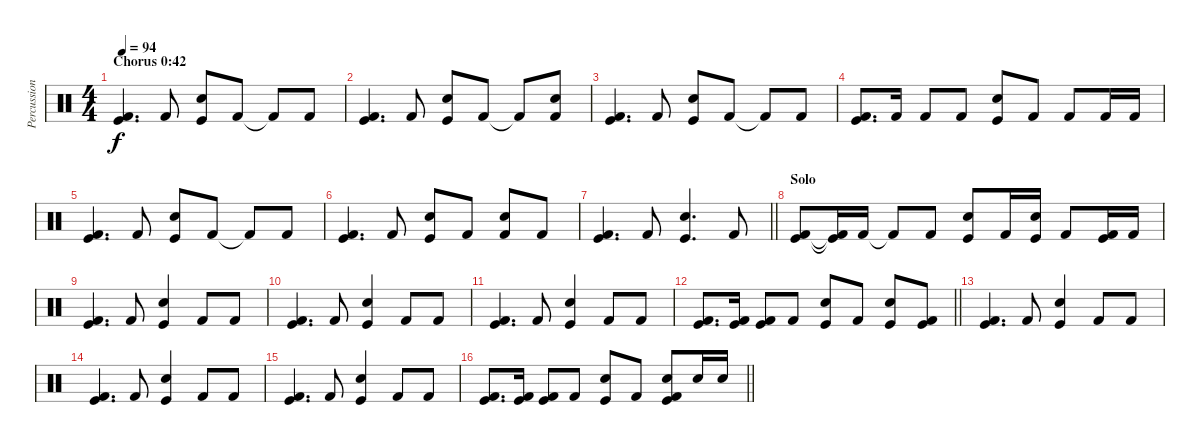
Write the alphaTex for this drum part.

\track ("Percussion" "Percussion") {instrument percussion}
\staff {score}
\articulation defaults
\ts (4 4)
\section ("" "Chorus 0:42")
\tempo 94
\clef neutral
\ks c
("Kick (hit)" "Kick (hit) 2").4{d dy f} "Kick (hit) 2".8 ("Electric Snare (hit)" "Kick (hit)").8 "Kick (hit) 2".8 "Kick (hit) 2"{t}.8 "Kick (hit) 2".8 |
("Kick (hit)" "Kick (hit) 2").4{d} "Kick (hit) 2".8 ("Electric Snare (hit)" "Kick (hit)").8 "Kick (hit) 2".8 "Kick (hit) 2"{t}.8 ("Electric Snare (hit)" "Kick (hit) 2").8 |
("Kick (hit)" "Kick (hit) 2").4{d} "Kick (hit) 2".8 ("Electric Snare (hit)" "Kick (hit)").8 "Kick (hit) 2".8 "Kick (hit) 2"{t}.8 "Kick (hit) 2".8 |
("Kick (hit)" "Kick (hit) 2").8{d} "Kick (hit) 2".16 "Kick (hit) 2".8 "Kick (hit) 2".8 ("Electric Snare (hit)" "Kick (hit)").8 "Kick (hit) 2".8 "Kick (hit) 2".8 "Kick (hit) 2".16 "Kick (hit) 2".16 |
("Kick (hit)" "Kick (hit) 2").4{d} "Kick (hit) 2".8 ("Electric Snare (hit)" "Kick (hit)").8 "Kick (hit) 2".8 "Kick (hit) 2"{t}.8 "Kick (hit) 2".8 |
("Kick (hit)" "Kick (hit) 2").4{d} "Kick (hit) 2".8 ("Electric Snare (hit)" "Kick (hit)").8 "Kick (hit) 2".8 ("Electric Snare (hit)" "Kick (hit) 2").8 "Kick (hit) 2".8 |
\barLineRight lightlight
("Kick (hit)" "Kick (hit) 2").4{d} "Kick (hit) 2".8 ("Electric Snare (hit)" "Kick (hit)").4{d} "Kick (hit) 2".8 |
\section ("" "Solo")
("Kick (hit)" "Kick (hit) 2").8 ("Kick (hit)"{t} "Kick (hit) 2"{t}).16 "Kick (hit) 2".16 "Kick (hit) 2"{t}.8 "Kick (hit) 2".8 ("Electric Snare (hit)" "Kick (hit)").8 "Kick (hit) 2".16 ("Electric Snare (hit)" "Kick (hit)").16 "Kick (hit) 2".8 ("Kick (hit)" "Kick (hit) 2").16 "Kick (hit) 2".16 |
("Kick (hit)" "Kick (hit) 2").4{d} "Kick (hit) 2".8 ("Electric Snare (hit)" "Kick (hit)").4 "Kick (hit) 2".8 "Kick (hit) 2".8 |
("Kick (hit)" "Kick (hit) 2").4{d} "Kick (hit) 2".8 ("Electric Snare (hit)" "Kick (hit)").4 "Kick (hit) 2".8 "Kick (hit) 2".8 |
("Kick (hit)" "Kick (hit) 2").4{d} "Kick (hit) 2".8 ("Electric Snare (hit)" "Kick (hit)").4 "Kick (hit) 2".8 "Kick (hit) 2".8 |
\barLineRight lightlight
("Kick (hit)" "Kick (hit) 2").8{d} ("Kick (hit)" "Kick (hit) 2").16 ("Kick (hit)" "Kick (hit) 2").8 "Kick (hit) 2".8 ("Electric Snare (hit)" "Kick (hit)").8 "Kick (hit) 2".8 ("Electric Snare (hit)" "Kick (hit)").8 ("Kick (hit)" "Kick (hit) 2").8 |
("Kick (hit)" "Kick (hit) 2").4{d} "Kick (hit) 2".8 ("Electric Snare (hit)" "Kick (hit)").4 "Kick (hit) 2".8 "Kick (hit) 2".8 |
("Kick (hit)" "Kick (hit) 2").4{d} "Kick (hit) 2".8 ("Electric Snare (hit)" "Kick (hit)").4 "Kick (hit) 2".8 "Kick (hit) 2".8 |
("Kick (hit)" "Kick (hit) 2").4{d} "Kick (hit) 2".8 ("Electric Snare (hit)" "Kick (hit)").4 "Kick (hit) 2".8 "Kick (hit) 2".8 |
\barLineRight lightlight
("Kick (hit)" "Kick (hit) 2").8{d} ("Kick (hit)" "Kick (hit) 2").16 ("Kick (hit)" "Kick (hit) 2").8 "Kick (hit) 2".8 ("Electric Snare (hit)" "Kick (hit)").8 "Kick (hit) 2".8 ("Electric Snare (hit)" "Kick (hit)" "Kick (hit) 2").8 "Electric Snare (hit)".16 "Electric Snare (hit)".16
